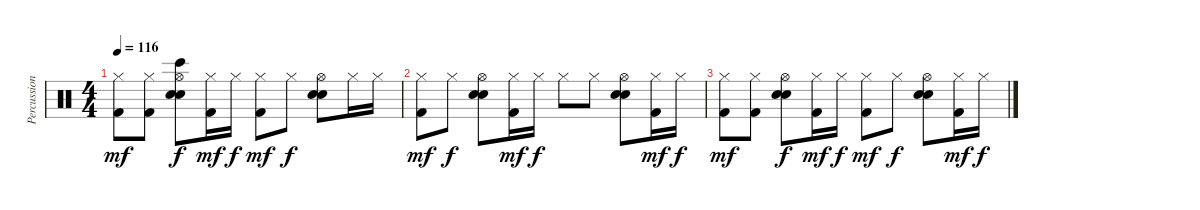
\track ("Percussion" "Percussion") {instrument percussion}
\staff {score}
\articulation defaults
\ts (4 4)
\tempo 116
\clef neutral
\ks c
("Hi-Hat (closed)" "Kick (hit) 2").8{dy mf} ("Hi-Hat (closed)" "Kick (hit) 2").8 ("Hi-Hat (open)" "Electric Snare (hit)" "Hand Clap (hit)" "Bongo High (hit)").8{dy f} ("Hi-Hat (closed)" "Kick (hit) 2").16{dy mf} "Hi-Hat (closed)".16{dy f} ("Hi-Hat (closed)" "Kick (hit) 2").8{dy mf} "Hi-Hat (closed)".8{dy f} ("Hi-Hat (open)" "Electric Snare (hit)" "Hand Clap (hit)").8 "Hi-Hat (closed)".16 "Hi-Hat (closed)".16 |
("Hi-Hat (closed)" "Kick (hit) 2").8{dy mf} "Hi-Hat (closed)".8{dy f} ("Hi-Hat (open)" "Electric Snare (hit)" "Hand Clap (hit)").8 ("Hi-Hat (closed)" "Kick (hit) 2").16{dy mf} "Hi-Hat (closed)".16{dy f} "Hi-Hat (closed)".8 "Hi-Hat (closed)".8 ("Hi-Hat (open)" "Electric Snare (hit)" "Hand Clap (hit)").8 ("Hi-Hat (closed)" "Kick (hit) 2").16{dy mf} "Hi-Hat (closed)".16{dy f} |
("Hi-Hat (closed)" "Kick (hit) 2").8{dy mf} ("Hi-Hat (closed)" "Kick (hit) 2").8 ("Hi-Hat (open)" "Electric Snare (hit)" "Hand Clap (hit)").8{dy f} ("Hi-Hat (closed)" "Kick (hit) 2").16{dy mf} "Hi-Hat (closed)".16{dy f} ("Hi-Hat (closed)" "Kick (hit) 2").8{dy mf} "Hi-Hat (closed)".8{dy f} ("Hi-Hat (open)" "Electric Snare (hit)" "Hand Clap (hit)").8 ("Hi-Hat (closed)" "Kick (hit) 2").16{dy mf} "Hi-Hat (closed)".16{dy f}
